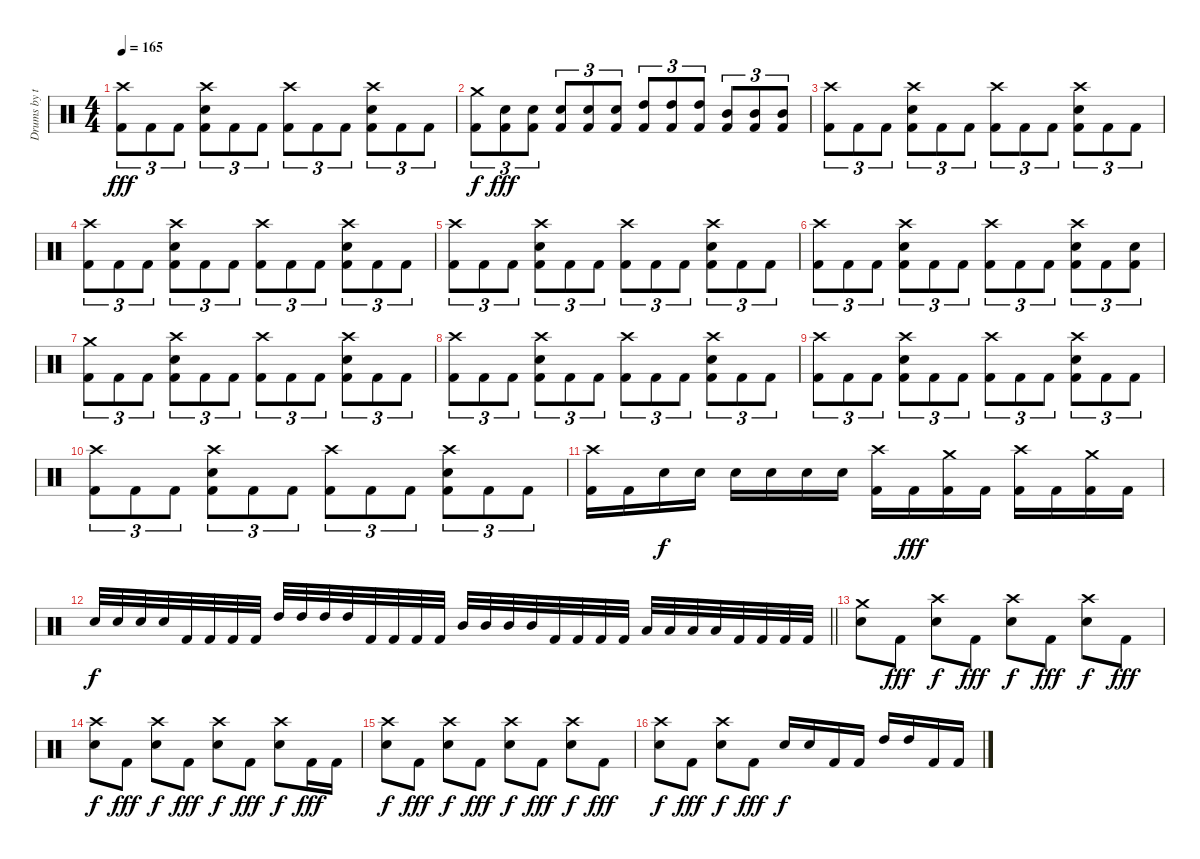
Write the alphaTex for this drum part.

\track ("Drums by terryn0" "Drums by t") {instrument percussion}
\staff {score}
\articulation defaults
\ts (4 4)
\tempo 165
\clef neutral
\ks c
("Crash high (hit)" "Kick (hit) 2").8{tu (3 2) dy fff} "Kick (hit) 2".8{tu (3 2)} "Kick (hit) 2".8{tu (3 2)} ("Crash high (hit)" "Electric Snare (hit)" "Kick (hit) 2").8{tu (3 2)} "Kick (hit) 2".8{tu (3 2)} "Kick (hit) 2".8{tu (3 2)} ("Crash high (hit)" "Kick (hit) 2").8{tu (3 2)} "Kick (hit) 2".8{tu (3 2)} "Kick (hit) 2".8{tu (3 2)} ("Crash high (hit)" "Electric Snare (hit)" "Kick (hit) 2").8{tu (3 2)} "Kick (hit) 2".8{tu (3 2)} "Kick (hit) 2".8{tu (3 2)} |
("Crash medium (hit)" "Kick (hit) 2").8{tu (3 2) dy f} ("Electric Snare (hit)" "Kick (hit) 2").8{tu (3 2) dy fff} ("Electric Snare (hit)" "Kick (hit) 2").8{tu (3 2)} ("Electric Snare (hit)" "Kick (hit) 2").8{tu (3 2)} ("Electric Snare (hit)" "Kick (hit) 2").8{tu (3 2)} ("Electric Snare (hit)" "Kick (hit) 2").8{tu (3 2)} ("High Tom (hit)" "Kick (hit) 2").8{tu (3 2)} ("High Tom (hit)" "Kick (hit) 2").8{tu (3 2)} ("High Tom (hit)" "Kick (hit) 2").8{tu (3 2)} ("Mid Tom (hit)" "Kick (hit) 2").8{tu (3 2)} ("Mid Tom (hit)" "Kick (hit) 2").8{tu (3 2)} ("Mid Tom (hit)" "Kick (hit) 2").8{tu (3 2)} |
("Crash high (hit)" "Kick (hit) 2").8{tu (3 2)} "Kick (hit) 2".8{tu (3 2)} "Kick (hit) 2".8{tu (3 2)} ("Crash high (hit)" "Electric Snare (hit)" "Kick (hit) 2").8{tu (3 2)} "Kick (hit) 2".8{tu (3 2)} "Kick (hit) 2".8{tu (3 2)} ("Crash high (hit)" "Kick (hit) 2").8{tu (3 2)} "Kick (hit) 2".8{tu (3 2)} "Kick (hit) 2".8{tu (3 2)} ("Crash high (hit)" "Electric Snare (hit)" "Kick (hit) 2").8{tu (3 2)} "Kick (hit) 2".8{tu (3 2)} "Kick (hit) 2".8{tu (3 2)} |
("Crash high (hit)" "Kick (hit) 2").8{tu (3 2)} "Kick (hit) 2".8{tu (3 2)} "Kick (hit) 2".8{tu (3 2)} ("Crash high (hit)" "Electric Snare (hit)" "Kick (hit) 2").8{tu (3 2)} "Kick (hit) 2".8{tu (3 2)} "Kick (hit) 2".8{tu (3 2)} ("Crash high (hit)" "Kick (hit) 2").8{tu (3 2)} "Kick (hit) 2".8{tu (3 2)} "Kick (hit) 2".8{tu (3 2)} ("Crash high (hit)" "Electric Snare (hit)" "Kick (hit) 2").8{tu (3 2)} "Kick (hit) 2".8{tu (3 2)} "Kick (hit) 2".8{tu (3 2)} |
("Crash high (hit)" "Kick (hit) 2").8{tu (3 2)} "Kick (hit) 2".8{tu (3 2)} "Kick (hit) 2".8{tu (3 2)} ("Crash high (hit)" "Electric Snare (hit)" "Kick (hit) 2").8{tu (3 2)} "Kick (hit) 2".8{tu (3 2)} "Kick (hit) 2".8{tu (3 2)} ("Crash high (hit)" "Kick (hit) 2").8{tu (3 2)} "Kick (hit) 2".8{tu (3 2)} "Kick (hit) 2".8{tu (3 2)} ("Crash high (hit)" "Electric Snare (hit)" "Kick (hit) 2").8{tu (3 2)} "Kick (hit) 2".8{tu (3 2)} "Kick (hit) 2".8{tu (3 2)} |
("Crash high (hit)" "Kick (hit) 2").8{tu (3 2)} "Kick (hit) 2".8{tu (3 2)} "Kick (hit) 2".8{tu (3 2)} ("Crash high (hit)" "Electric Snare (hit)" "Kick (hit) 2").8{tu (3 2)} "Kick (hit) 2".8{tu (3 2)} "Kick (hit) 2".8{tu (3 2)} ("Crash high (hit)" "Kick (hit) 2").8{tu (3 2)} "Kick (hit) 2".8{tu (3 2)} "Kick (hit) 2".8{tu (3 2)} ("Crash high (hit)" "Electric Snare (hit)" "Kick (hit) 2").8{tu (3 2)} "Kick (hit) 2".8{tu (3 2)} ("Electric Snare (hit)" "Kick (hit) 2").8{tu (3 2)} |
("Crash medium (hit)" "Kick (hit) 2").8{tu (3 2)} "Kick (hit) 2".8{tu (3 2)} "Kick (hit) 2".8{tu (3 2)} ("Crash high (hit)" "Electric Snare (hit)" "Kick (hit) 2").8{tu (3 2)} "Kick (hit) 2".8{tu (3 2)} "Kick (hit) 2".8{tu (3 2)} ("Crash high (hit)" "Kick (hit) 2").8{tu (3 2)} "Kick (hit) 2".8{tu (3 2)} "Kick (hit) 2".8{tu (3 2)} ("Crash high (hit)" "Electric Snare (hit)" "Kick (hit) 2").8{tu (3 2)} "Kick (hit) 2".8{tu (3 2)} "Kick (hit) 2".8{tu (3 2)} |
("Crash high (hit)" "Kick (hit) 2").8{tu (3 2)} "Kick (hit) 2".8{tu (3 2)} "Kick (hit) 2".8{tu (3 2)} ("Crash high (hit)" "Electric Snare (hit)" "Kick (hit) 2").8{tu (3 2)} "Kick (hit) 2".8{tu (3 2)} "Kick (hit) 2".8{tu (3 2)} ("Crash high (hit)" "Kick (hit) 2").8{tu (3 2)} "Kick (hit) 2".8{tu (3 2)} "Kick (hit) 2".8{tu (3 2)} ("Crash high (hit)" "Electric Snare (hit)" "Kick (hit) 2").8{tu (3 2)} "Kick (hit) 2".8{tu (3 2)} "Kick (hit) 2".8{tu (3 2)} |
("Crash high (hit)" "Kick (hit) 2").8{tu (3 2)} "Kick (hit) 2".8{tu (3 2)} "Kick (hit) 2".8{tu (3 2)} ("Crash high (hit)" "Electric Snare (hit)" "Kick (hit) 2").8{tu (3 2)} "Kick (hit) 2".8{tu (3 2)} "Kick (hit) 2".8{tu (3 2)} ("Crash high (hit)" "Kick (hit) 2").8{tu (3 2)} "Kick (hit) 2".8{tu (3 2)} "Kick (hit) 2".8{tu (3 2)} ("Crash high (hit)" "Electric Snare (hit)" "Kick (hit) 2").8{tu (3 2)} "Kick (hit) 2".8{tu (3 2)} "Kick (hit) 2".8{tu (3 2)} |
("Crash high (hit)" "Kick (hit) 2").8{tu (3 2)} "Kick (hit) 2".8{tu (3 2)} "Kick (hit) 2".8{tu (3 2)} ("Crash high (hit)" "Electric Snare (hit)" "Kick (hit) 2").8{tu (3 2)} "Kick (hit) 2".8{tu (3 2)} "Kick (hit) 2".8{tu (3 2)} ("Crash high (hit)" "Kick (hit) 2").8{tu (3 2)} "Kick (hit) 2".8{tu (3 2)} "Kick (hit) 2".8{tu (3 2)} ("Crash high (hit)" "Electric Snare (hit)" "Kick (hit) 2").8{tu (3 2)} "Kick (hit) 2".8{tu (3 2)} "Kick (hit) 2".8{tu (3 2)} |
("Crash high (hit)" "Kick (hit) 2").16 "Kick (hit) 2".16 "Electric Snare (hit)".16{dy f} "Electric Snare (hit)".16 "Electric Snare (hit)".16 "Electric Snare (hit)".16 "Electric Snare (hit)".16 "Electric Snare (hit)".16 ("Crash high (hit)" "Kick (hit) 2").16 "Kick (hit) 2".16{dy fff} ("Crash medium (hit)" "Kick (hit) 2").16 "Kick (hit) 2".16 ("Crash high (hit)" "Kick (hit) 2").16 "Kick (hit) 2".16 ("Crash medium (hit)" "Kick (hit) 2").16 "Kick (hit) 2".16 |
\barLineRight lightlight "Electric Snare (hit)".32{dy f} "Electric Snare (hit)".32 "Electric Snare (hit)".32 "Electric Snare (hit)".32 "Kick (hit) 2".32 "Kick (hit) 2".32 "Kick (hit) 2".32 "Kick (hit) 2".32 "High Tom (hit)".32 "High Tom (hit)".32 "High Tom (hit)".32 "High Tom (hit)".32 "Kick (hit) 2".32 "Kick (hit) 2".32 "Kick (hit) 2".32 "Kick (hit) 2".32 "Mid Tom (hit)".32 "Mid Tom (hit)".32 "Mid Tom (hit)".32 "Mid Tom (hit)".32 "Kick (hit) 2".32 "Kick (hit) 2".32 "Kick (hit) 2".32 "Kick (hit) 2".32 "Low Tom (hit)".32 "Low Tom (hit)".32 "Low Tom (hit)".32 "Low Tom (hit)".32 "Kick (hit) 2".32 "Kick (hit) 2".32 "Kick (hit) 2".32 "Kick (hit) 2".32
|
("Crash medium (hit)" "Electric Snare (hit)").8 "Kick (hit) 2".8{dy fff} ("Crash high (hit)" "Electric Snare (hit)").8{dy f} "Kick (hit) 2".8{dy fff} ("Crash high (hit)" "Electric Snare (hit)").8{dy f} "Kick (hit) 2".8{dy fff} ("Crash high (hit)" "Electric Snare (hit)").8{dy f} "Kick (hit) 2".8{dy fff} |
("Crash high (hit)" "Electric Snare (hit)").8{dy f} "Kick (hit) 2".8{dy fff} ("Crash high (hit)" "Electric Snare (hit)").8{dy f} "Kick (hit) 2".8{dy fff} ("Crash high (hit)" "Electric Snare (hit)").8{dy f} "Kick (hit) 2".8{dy fff} ("Crash high (hit)" "Electric Snare (hit)").8{dy f} "Kick (hit) 2".16{dy fff} "Kick (hit) 2".16 |
("Crash high (hit)" "Electric Snare (hit)").8{dy f} "Kick (hit) 2".8{dy fff} ("Crash high (hit)" "Electric Snare (hit)").8{dy f} "Kick (hit) 2".8{dy fff} ("Crash high (hit)" "Electric Snare (hit)").8{dy f} "Kick (hit) 2".8{dy fff} ("Crash high (hit)" "Electric Snare (hit)").8{dy f} "Kick (hit) 2".8{dy fff} |
("Crash high (hit)" "Electric Snare (hit)").8{dy f} "Kick (hit) 2".8{dy fff} ("Crash high (hit)" "Electric Snare (hit)").8{dy f} "Kick (hit) 2".8{dy fff} "Electric Snare (hit)".16{dy f} "Electric Snare (hit)".16 "Kick (hit) 2".16 "Kick (hit) 2".16 "High Tom (hit)".16 "High Tom (hit)".16 "Kick (hit) 2".16 "Kick (hit) 2".16
